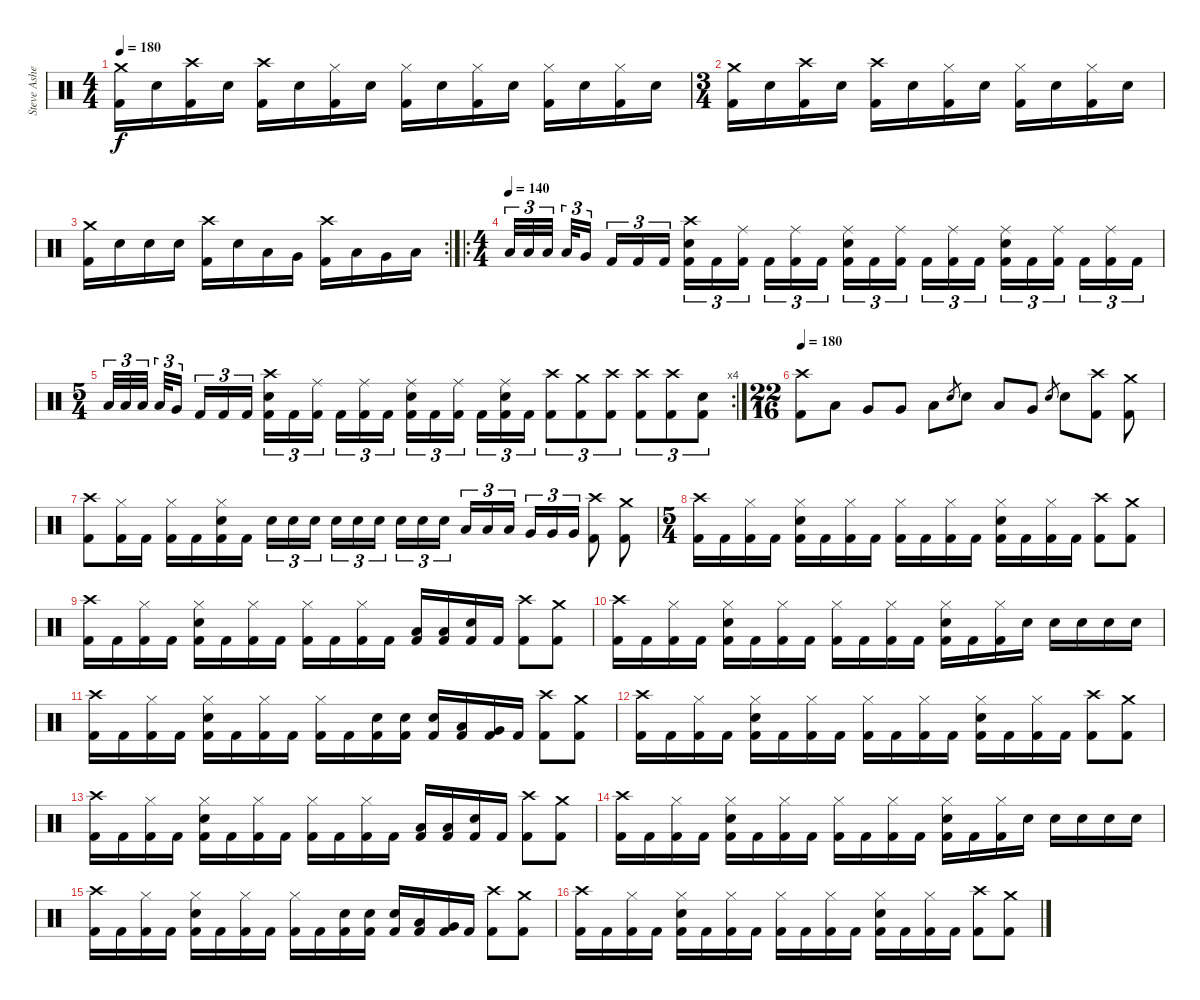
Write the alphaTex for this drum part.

\track ("Steve Asheim" "Steve Ashe") {instrument percussion}
\staff {score}
\articulation defaults
\ts (4 4)
\tempo 180
\clef neutral
\ks c
("Crash medium (hit)" "Kick (hit) 2").16{dy f} "Snare (hit) 2".16 ("Crash high (hit)" "Kick (hit) 2").16 "Snare (hit) 2".16 ("Crash high (hit)" "Kick (hit) 2").16 "Snare (hit) 2".16 ("Hi-Hat (closed)" "Kick (hit) 2").16 "Snare (hit) 2".16 ("Hi-Hat (closed)" "Kick (hit) 2").16 "Snare (hit) 2".16 ("Hi-Hat (closed)" "Kick (hit) 2").16 "Snare (hit) 2".16 ("Hi-Hat (closed)" "Kick (hit) 2").16 "Snare (hit) 2".16 ("Hi-Hat (closed)" "Kick (hit) 2").16 "Snare (hit) 2".16 |
\ts (3 4)
("Crash medium (hit)" "Kick (hit) 2").16 "Snare (hit) 2".16 ("Crash high (hit)" "Kick (hit) 2").16 "Snare (hit) 2".16 ("Crash high (hit)" "Kick (hit) 2").16 "Snare (hit) 2".16 ("Hi-Hat (closed)" "Kick (hit) 2").16 "Snare (hit) 2".16 ("Hi-Hat (closed)" "Kick (hit) 2").16 "Snare (hit) 2".16 ("Hi-Hat (closed)" "Kick (hit) 2").16 "Snare (hit) 2".16 |
\rc 2
("Crash medium (hit)" "Kick (hit) 2").16 "Snare (hit) 2".16 "Snare (hit) 2".16 "Snare (hit) 2".16 ("Crash high (hit)" "Kick (hit) 2").16 "Snare (hit) 2".16 "Low Tom (hit)".16 "Very Low Tom (hit)".16 ("Crash high (hit)" "Kick (hit) 2").16 "Low Tom (hit)".16 "Very Low Tom (hit)".16 "Low Floor Tom (hit)".16 |
\ro
\ts (4 4)
\tempo (140)
"Low Tom (hit)".32{tu (3 2)} "Low Tom (hit)".32{tu (3 2)} "Low Tom (hit)".32{tu (3 2) beam splitsecondary} "Low Tom (hit)".32{tu (3 2)} "Very Low Tom (hit)".16{tu (3 2) beam splitsecondary} "Kick (hit) 2".16{tu (3 2)} "Kick (hit) 2".16{tu (3 2)} "Kick (hit) 2".16{tu (3 2)} ("Crash high (hit)" "Snare (hit) 2" "Kick (hit) 2").16{tu (3 2)} "Kick (hit) 2".16{tu (3 2)} ("Ride (middle)" "Kick (hit) 2").16{tu (3 2) beam splitsecondary} "Kick (hit) 2".16{tu (3 2)} ("Ride (middle)" "Kick (hit) 2").16{tu (3 2)} "Kick (hit) 2".16{tu (3 2)} ("Ride (middle)" "Snare (hit) 2" "Kick (hit) 2").16{tu (3 2)} "Kick (hit) 2".16{tu (3 2)} ("Ride (middle)" "Kick (hit) 2").16{tu (3 2) beam splitsecondary} "Kick (hit) 2".16{tu (3 2)} ("Ride (middle)" "Kick (hit) 2").16{tu (3 2)} "Kick (hit) 2".16{tu (3 2)} ("Ride (middle)" "Snare (hit) 2" "Kick (hit) 2").16{tu (3 2)} "Kick (hit) 2".16{tu (3 2)} ("Ride (middle)" "Kick (hit) 2").16{tu (3 2) beam splitsecondary} "Kick (hit) 2".16{tu (3 2)} ("Ride (middle)" "Kick (hit) 2").16{tu (3 2)} "Kick (hit) 2".16{tu (3 2)} |
\rc 4
\ts (5 4)
"Low Tom (hit)".32{tu (3 2)} "Low Tom (hit)".32{tu (3 2)} "Low Tom (hit)".32{tu (3 2) beam splitsecondary} "Low Tom (hit)".32{tu (3 2)} "Very Low Tom (hit)".16{tu (3 2) beam splitsecondary} "Kick (hit) 2".16{tu (3 2)} "Kick (hit) 2".16{tu (3 2)} "Kick (hit) 2".16{tu (3 2)} ("Crash high (hit)" "Snare (hit) 2" "Kick (hit) 2").16{tu (3 2)} "Kick (hit) 2".16{tu (3 2)} ("Ride (middle)" "Kick (hit) 2").16{tu (3 2) beam splitsecondary} "Kick (hit) 2".16{tu (3 2)} ("Ride (middle)" "Kick (hit) 2").16{tu (3 2)} "Kick (hit) 2".16{tu (3 2)} ("Ride (middle)" "Snare (hit) 2" "Kick (hit) 2").16{tu (3 2)} "Kick (hit) 2".16{tu (3 2)} ("Ride (middle)" "Kick (hit) 2").16{tu (3 2) beam splitsecondary} "Kick (hit) 2".16{tu (3 2)} ("Ride (middle)" "Snare (hit) 2" "Kick (hit) 2").16{tu (3 2)} "Kick (hit) 2".16{tu (3 2)} ("Crash high (hit)" "Kick (hit) 2").8{tu (3 2)} ("Crash medium (hit)" "Kick (hit) 2").8{tu (3 2)} ("Crash high (hit)" "Kick (hit) 2").8{tu (3 2)} ("Crash high (hit)" "Kick (hit) 2").8{tu (3 2)} ("Crash high (hit)" "Kick (hit) 2").8{tu (3 2)} ("Snare (hit) 2" "Kick (hit) 2").8{tu (3 2)} |
\ts (22 16)
\tempo 180
("Crash high (hit)" "Kick (hit) 2").8 "Low Tom (hit)".8 "Very Low Tom (hit)".8 "Very Low Tom (hit)".8 "Low Floor Tom (hit)".8 "Snare (hit) 2".8{gr} "Snare (hit) 2".8 "Low Tom (hit)".8 "Very Low Tom (hit)".8 "Snare (hit) 2".8{gr} "Snare (hit) 2".8 ("Crash high (hit)" "Kick (hit) 2").8 ("Crash medium (hit)" "Kick (hit) 2").8 |
("Crash high (hit)" "Kick (hit) 2").8 ("Hi-Hat (closed)" "Kick (hit) 2").16 "Kick (hit) 2".16 ("Hi-Hat (closed)" "Kick (hit) 2").16 "Kick (hit) 2".16 ("Hi-Hat (closed)" "Snare (hit) 2" "Kick (hit) 2").16 "Kick (hit) 2".16 "Snare (hit) 2".16{tu (3 2)} "Snare (hit) 2".16{tu (3 2)} "Snare (hit) 2".16{tu (3 2)} "Snare (hit) 2".16{tu (3 2)} "Snare (hit) 2".16{tu (3 2)} "Snare (hit) 2".16{tu (3 2)} "Snare (hit) 2".16{tu (3 2)} "Snare (hit) 2".16{tu (3 2)} "Snare (hit) 2".16{tu (3 2)} "Low Tom (hit)".16{tu (3 2)} "Low Tom (hit)".16{tu (3 2)} "Low Tom (hit)".16{tu (3 2)} "Very Low Tom (hit)".16{tu (3 2)} "Very Low Tom (hit)".16{tu (3 2)} "Very Low Tom (hit)".16{tu (3 2)} ("Crash high (hit)" "Kick (hit) 2").8 ("Crash medium (hit)" "Kick (hit) 2").8 |
\ts (5 4)
("Crash high (hit)" "Kick (hit) 2").16 "Kick (hit) 2".16 ("Hi-Hat (closed)" "Kick (hit) 2").16 "Kick (hit) 2".16 ("Hi-Hat (closed)" "Snare (hit) 2" "Kick (hit) 2").16 "Kick (hit) 2".16 ("Hi-Hat (closed)" "Kick (hit) 2").16 "Kick (hit) 2".16 ("Hi-Hat (closed)" "Kick (hit) 2").16 "Kick (hit) 2".16 ("Hi-Hat (closed)" "Kick (hit) 2").16 "Kick (hit) 2".16 ("Hi-Hat (closed)" "Snare (hit) 2" "Kick (hit) 2").16 "Kick (hit) 2".16 ("Hi-Hat (closed)" "Kick (hit) 2").16 "Kick (hit) 2".16 ("Crash high (hit)" "Kick (hit) 2").8 ("Crash medium (hit)" "Kick (hit) 2").8 |
("Crash high (hit)" "Kick (hit) 2").16 "Kick (hit) 2".16 ("Hi-Hat (closed)" "Kick (hit) 2").16 "Kick (hit) 2".16 ("Hi-Hat (closed)" "Snare (hit) 2" "Kick (hit) 2").16 "Kick (hit) 2".16 ("Hi-Hat (closed)" "Kick (hit) 2").16 "Kick (hit) 2".16 ("Hi-Hat (closed)" "Kick (hit) 2").16 "Kick (hit) 2".16 ("Hi-Hat (closed)" "Kick (hit) 2").16 "Kick (hit) 2".16 ("Low Tom (hit)" "Kick (hit) 2").16 ("Low Tom (hit)" "Kick (hit) 2").16 ("Snare (hit) 2" "Kick (hit) 2").16 "Kick (hit) 2".16 ("Crash high (hit)" "Kick (hit) 2").8 ("Crash medium (hit)" "Kick (hit) 2").8 |
("Crash high (hit)" "Kick (hit) 2").16 "Kick (hit) 2".16 ("Hi-Hat (closed)" "Kick (hit) 2").16 "Kick (hit) 2".16 ("Hi-Hat (closed)" "Snare (hit) 2" "Kick (hit) 2").16 "Kick (hit) 2".16 ("Hi-Hat (closed)" "Kick (hit) 2").16 "Kick (hit) 2".16 ("Hi-Hat (closed)" "Kick (hit) 2").16 "Kick (hit) 2".16 ("Hi-Hat (closed)" "Kick (hit) 2").16 "Kick (hit) 2".16 ("Hi-Hat (closed)" "Snare (hit) 2" "Kick (hit) 2").16 "Kick (hit) 2".16 ("Hi-Hat (closed)" "Kick (hit) 2").16 "Snare (hit) 2".16 "Snare (hit) 2".16 "Snare (hit) 2".16 "Snare (hit) 2".16 "Snare (hit) 2".16 |
("Crash high (hit)" "Kick (hit) 2").16 "Kick (hit) 2".16 ("Hi-Hat (closed)" "Kick (hit) 2").16 "Kick (hit) 2".16 ("Hi-Hat (closed)" "Snare (hit) 2" "Kick (hit) 2").16 "Kick (hit) 2".16 ("Hi-Hat (closed)" "Kick (hit) 2").16 "Kick (hit) 2".16 ("Hi-Hat (closed)" "Kick (hit) 2").16 "Kick (hit) 2".16 ("Snare (hit) 2" "Kick (hit) 2").16 ("Snare (hit) 2" "Kick (hit) 2").16 ("Snare (hit) 2" "Kick (hit) 2").16 ("Low Tom (hit)" "Kick (hit) 2").16 ("Very Low Tom (hit)" "Kick (hit) 2").16 "Kick (hit) 2".16 ("Crash high (hit)" "Kick (hit) 2").8 ("Crash medium (hit)" "Kick (hit) 2").8 |
("Crash high (hit)" "Kick (hit) 2").16 "Kick (hit) 2".16 ("Hi-Hat (closed)" "Kick (hit) 2").16 "Kick (hit) 2".16 ("Hi-Hat (closed)" "Snare (hit) 2" "Kick (hit) 2").16 "Kick (hit) 2".16 ("Hi-Hat (closed)" "Kick (hit) 2").16 "Kick (hit) 2".16 ("Hi-Hat (closed)" "Kick (hit) 2").16 "Kick (hit) 2".16 ("Hi-Hat (closed)" "Kick (hit) 2").16 "Kick (hit) 2".16 ("Hi-Hat (closed)" "Snare (hit) 2" "Kick (hit) 2").16 "Kick (hit) 2".16 ("Hi-Hat (closed)" "Kick (hit) 2").16 "Kick (hit) 2".16 ("Crash high (hit)" "Kick (hit) 2").8 ("Crash medium (hit)" "Kick (hit) 2").8 |
("Crash high (hit)" "Kick (hit) 2").16 "Kick (hit) 2".16 ("Hi-Hat (closed)" "Kick (hit) 2").16 "Kick (hit) 2".16 ("Hi-Hat (closed)" "Snare (hit) 2" "Kick (hit) 2").16 "Kick (hit) 2".16 ("Hi-Hat (closed)" "Kick (hit) 2").16 "Kick (hit) 2".16 ("Hi-Hat (closed)" "Kick (hit) 2").16 "Kick (hit) 2".16 ("Hi-Hat (closed)" "Kick (hit) 2").16 "Kick (hit) 2".16 ("Low Tom (hit)" "Kick (hit) 2").16 ("Low Tom (hit)" "Kick (hit) 2").16 ("Snare (hit) 2" "Kick (hit) 2").16 "Kick (hit) 2".16 ("Crash high (hit)" "Kick (hit) 2").8 ("Crash medium (hit)" "Kick (hit) 2").8 |
("Crash high (hit)" "Kick (hit) 2").16 "Kick (hit) 2".16 ("Hi-Hat (closed)" "Kick (hit) 2").16 "Kick (hit) 2".16 ("Hi-Hat (closed)" "Snare (hit) 2" "Kick (hit) 2").16 "Kick (hit) 2".16 ("Hi-Hat (closed)" "Kick (hit) 2").16 "Kick (hit) 2".16 ("Hi-Hat (closed)" "Kick (hit) 2").16 "Kick (hit) 2".16 ("Hi-Hat (closed)" "Kick (hit) 2").16 "Kick (hit) 2".16 ("Hi-Hat (closed)" "Snare (hit) 2" "Kick (hit) 2").16 "Kick (hit) 2".16 ("Hi-Hat (closed)" "Kick (hit) 2").16 "Snare (hit) 2".16 "Snare (hit) 2".16 "Snare (hit) 2".16 "Snare (hit) 2".16 "Snare (hit) 2".16 |
("Crash high (hit)" "Kick (hit) 2").16 "Kick (hit) 2".16 ("Hi-Hat (closed)" "Kick (hit) 2").16 "Kick (hit) 2".16 ("Hi-Hat (closed)" "Snare (hit) 2" "Kick (hit) 2").16 "Kick (hit) 2".16 ("Hi-Hat (closed)" "Kick (hit) 2").16 "Kick (hit) 2".16 ("Hi-Hat (closed)" "Kick (hit) 2").16 "Kick (hit) 2".16 ("Snare (hit) 2" "Kick (hit) 2").16 ("Snare (hit) 2" "Kick (hit) 2").16 ("Snare (hit) 2" "Kick (hit) 2").16 ("Low Tom (hit)" "Kick (hit) 2").16 ("Very Low Tom (hit)" "Kick (hit) 2").16 "Kick (hit) 2".16 ("Crash high (hit)" "Kick (hit) 2").8 ("Crash medium (hit)" "Kick (hit) 2").8 |
("Crash high (hit)" "Kick (hit) 2").16 "Kick (hit) 2".16 ("Hi-Hat (closed)" "Kick (hit) 2").16 "Kick (hit) 2".16 ("Hi-Hat (closed)" "Snare (hit) 2" "Kick (hit) 2").16 "Kick (hit) 2".16 ("Hi-Hat (closed)" "Kick (hit) 2").16 "Kick (hit) 2".16 ("Hi-Hat (closed)" "Kick (hit) 2").16 "Kick (hit) 2".16 ("Hi-Hat (closed)" "Kick (hit) 2").16 "Kick (hit) 2".16 ("Hi-Hat (closed)" "Snare (hit) 2" "Kick (hit) 2").16 "Kick (hit) 2".16 ("Hi-Hat (closed)" "Kick (hit) 2").16 "Kick (hit) 2".16 ("Crash high (hit)" "Kick (hit) 2").8 ("Crash medium (hit)" "Kick (hit) 2").8
